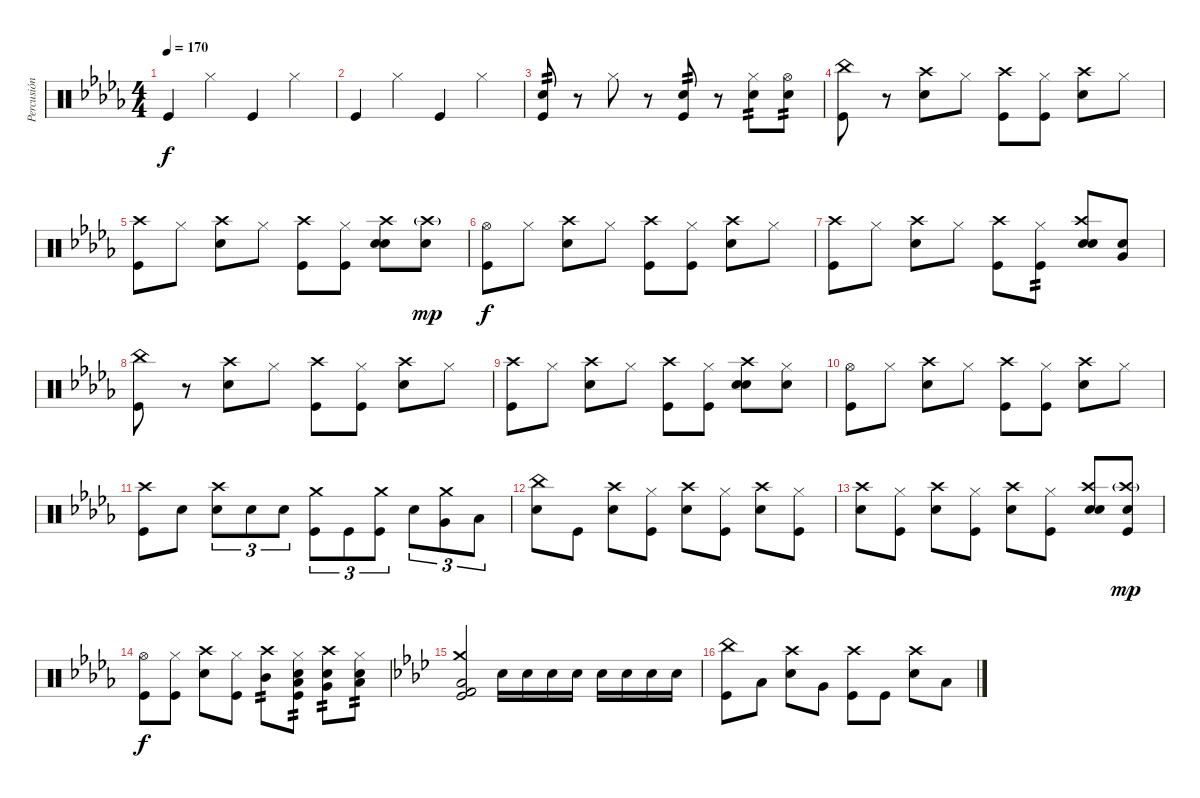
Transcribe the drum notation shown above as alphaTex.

\track ("Percusión" "Percusión") {instrument percussion}
\staff {score}
\articulation defaults
\ts (4 4)
\tempo 170
\clef neutral
\ks db "Kick (hit)".4{dy f} "Hi-Hat (closed)".4 "Kick (hit)".4 "Hi-Hat (closed)".4
|
"Kick (hit)".4 "Hi-Hat (closed)".4 "Kick (hit)".4 "Hi-Hat (closed)".4 |
("Electric Snare (hit)" "Kick (hit)").8{tp 2} r.8 "Hi-Hat (closed)".8 r.8 ("Electric Snare (hit)" "Kick (hit)").8{tp 2} r.8 ("Hi-Hat (closed)" "Electric Snare (hit)").8{tp 2} ("Hi-Hat (open)" "Electric Snare (hit)").8{tp 2} |
("China (hit)" "Kick (hit)").8 r.8 ("Crash high (hit)" "Electric Snare (hit)").8 "Hi-Hat (closed)".8 ("Crash high (hit)" "Kick (hit)").8 ("Hi-Hat (closed)" "Kick (hit)").8 ("Crash high (hit)" "Electric Snare (hit)").8 "Hi-Hat (closed)".8 |
("Crash high (hit)" "Kick (hit)").8 "Hi-Hat (closed)".8 ("Crash high (hit)" "Electric Snare (hit)").8 "Hi-Hat (closed)".8 ("Crash high (hit)" "Kick (hit)").8 ("Hi-Hat (closed)" "Kick (hit)").8 ("Crash high (hit)" "Electric Snare (hit)" "Hand Clap (hit)").8 ("Crash high (hit)"{g} "Hand Clap (hit)").8{dy mp} |
("Hi-Hat (open)" "Kick (hit)").8{dy f} "Hi-Hat (closed)".8 ("Crash high (hit)" "Electric Snare (hit)").8 "Hi-Hat (closed)".8 ("Crash high (hit)" "Kick (hit)").8 ("Hi-Hat (closed)" "Kick (hit)").8 ("Crash high (hit)" "Electric Snare (hit)").8 "Hi-Hat (closed)".8 |
("Crash high (hit)" "Kick (hit)").8 "Hi-Hat (closed)".8 ("Crash high (hit)" "Electric Snare (hit)").8 "Hi-Hat (closed)".8 ("Crash high (hit)" "Kick (hit)").8 ("Hi-Hat (closed)" "Kick (hit)").8{tp 2} ("Crash high (hit)" "Hand Clap (hit)" "Electric Snare (hit)").8 ("Hand Clap (hit)" "Very Low Tom (hit)").8 |
("China (hit)" "Kick (hit)").8 r.8 ("Crash high (hit)" "Electric Snare (hit)").8 "Hi-Hat (closed)".8 ("Crash high (hit)" "Kick (hit)").8 ("Hi-Hat (closed)" "Kick (hit)").8 ("Crash high (hit)" "Electric Snare (hit)").8 "Hi-Hat (closed)".8 |
("Crash high (hit)" "Kick (hit)").8 "Hi-Hat (closed)".8 ("Crash high (hit)" "Electric Snare (hit)").8 "Hi-Hat (closed)".8 ("Crash high (hit)" "Kick (hit)").8 ("Hi-Hat (closed)" "Kick (hit)").8 ("Crash high (hit)" "Hand Clap (hit)" "Electric Snare (hit)").8 ("Hi-Hat (closed)" "Hand Clap (hit)").8 |
("Hi-Hat (open)" "Kick (hit)").8 "Hi-Hat (closed)".8 ("Crash high (hit)" "Electric Snare (hit)").8 "Hi-Hat (closed)".8 ("Crash high (hit)" "Kick (hit)").8 ("Hi-Hat (closed)" "Kick (hit)").8 ("Crash high (hit)" "Electric Snare (hit)").8 "Hi-Hat (closed)".8 |
("Crash high (hit)" "Kick (hit)").8 "Electric Snare (hit)".8 ("Crash high (hit)" "Electric Snare (hit)").8{tu (3 2)} "Electric Snare (hit)".8{tu (3 2)} "Electric Snare (hit)".8{tu (3 2)} ("Crash medium (hit)" "Kick (hit)").8{tu (3 2)} "Kick (hit)".8{tu (3 2)} ("Crash medium (hit)" "Kick (hit)").8{tu (3 2)} "Electric Snare (hit)".8{tu (3 2)} ("Crash medium (hit)" "Very Low Tom (hit)").8{tu (3 2)} "Low Floor Tom (hit)".8{tu (3 2)} |
("China (hit)" "Electric Snare (hit)").8 "Kick (hit)".8 ("Crash high (hit)" "Electric Snare (hit)").8 ("Hi-Hat (closed)" "Kick (hit)").8 ("Crash high (hit)" "Electric Snare (hit)").8 ("Hi-Hat (closed)" "Kick (hit)").8 ("Crash high (hit)" "Electric Snare (hit)").8 ("Hi-Hat (closed)" "Kick (hit)").8 |
("Crash high (hit)" "Electric Snare (hit)").8 ("Hi-Hat (closed)" "Kick (hit)").8 ("Crash high (hit)" "Electric Snare (hit)").8 ("Hi-Hat (closed)" "Kick (hit)").8 ("Crash high (hit)" "Electric Snare (hit)").8 ("Hi-Hat (closed)" "Kick (hit)").8 ("Crash high (hit)" "Electric Snare (hit)" "Hand Clap (hit)").8 ("Crash high (hit)"{g} "Hand Clap (hit)" "Kick (hit)").8{dy mp} |
("Hi-Hat (open)" "Kick (hit)").8{dy f} ("Hi-Hat (closed)" "Kick (hit)").8 ("Crash high (hit)" "Electric Snare (hit)").8 ("Hi-Hat (closed)" "Kick (hit)").8 ("Crash high (hit)" "Mid Tom (hit)").8{tp 2} ("Hi-Hat (closed)" "Low Tom (hit)" "Electric Snare (hit)" "Kick (hit)").8{tp 2} ("Crash high (hit)" "Very Low Tom (hit)" "Electric Snare (hit)").8{tp 2} ("Hi-Hat (closed)" "Low Floor Tom (hit)" "Electric Snare (hit)").8{tp 2} |
\ks ab
("Crash medium (hit)" "Low Floor Tom (hit)" "Kick (hit)" "Kick (hit) 2").2 "Electric Snare (hit)".16 "Electric Snare (hit)".16 "Electric Snare (hit)".16 "Electric Snare (hit)".16 "Electric Snare (hit)".16 "Electric Snare (hit)".16 "Electric Snare (hit)".16 "Electric Snare (hit)".16 |
("China (hit)" "Kick (hit)").8 "Low Floor Tom (hit)".8 ("Crash high (hit)" "Electric Snare (hit)").8 "Very Low Tom (hit)".8 ("Crash high (hit)" "Kick (hit)").8 "Kick (hit)".8 ("Crash high (hit)" "Electric Snare (hit)").8 "Low Tom (hit)".8
